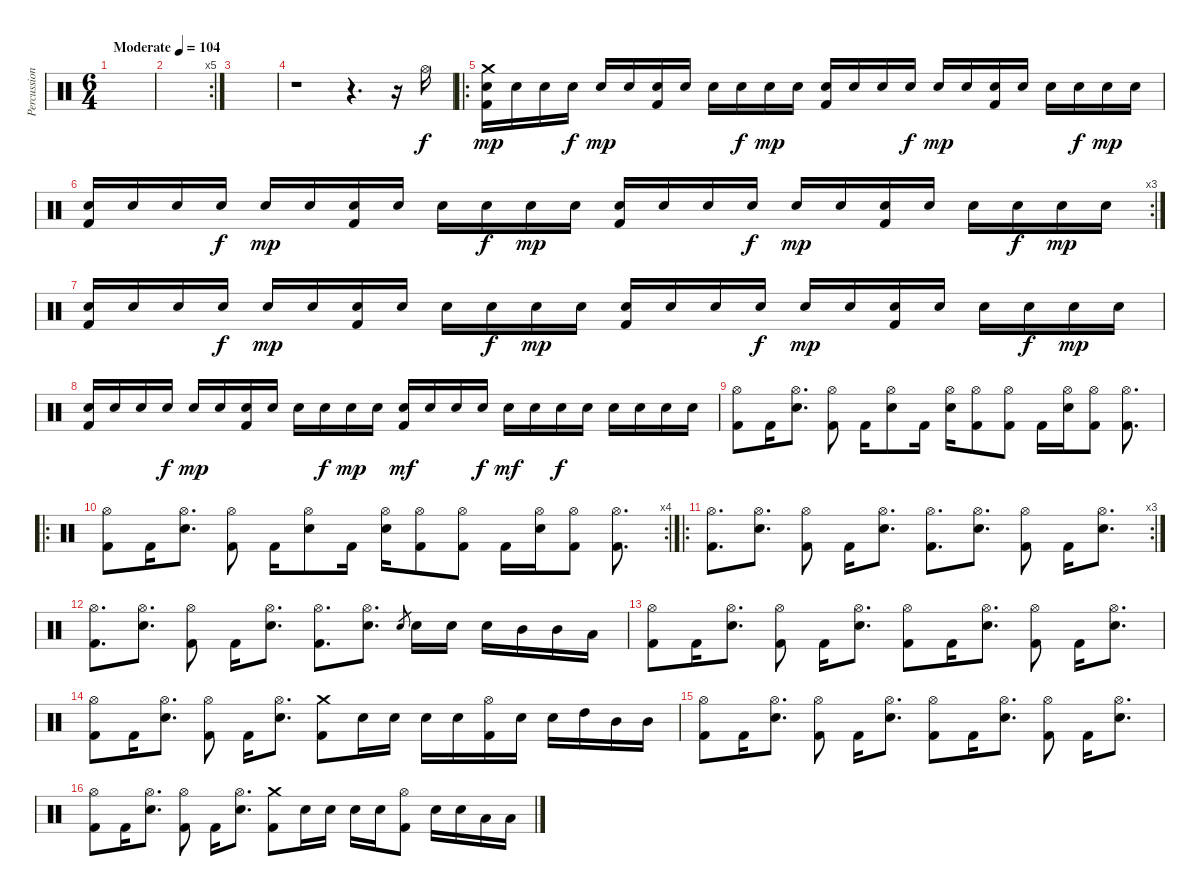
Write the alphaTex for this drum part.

\track ("Percussions" "Percussion") {instrument percussion}
\staff {score}
\articulation defaults
\ts (6 4)
\tempo (104 "Moderate")
\clef neutral
\ks c
|
\rc 5
|
|
r.1 r.4{d} r.16 "Hi-Hat (open)".16 |
\ro
("Crash medium (hit)" "Snare (hit) 2" "Kick (hit) 2").16{dy mp} "Snare (hit) 2".16 "Snare (hit) 2".16 "Snare (hit) 2".16{dy f} "Snare (hit) 2".16{dy mp} "Snare (hit) 2".16 ("Snare (hit) 2" "Kick (hit) 2").16 "Snare (hit) 2".16 "Snare (hit) 2".16 "Snare (hit) 2".16{dy f} "Snare (hit) 2".16{dy mp} "Snare (hit) 2".16 ("Snare (hit) 2" "Kick (hit) 2").16 "Snare (hit) 2".16 "Snare (hit) 2".16 "Snare (hit) 2".16{dy f} "Snare (hit) 2".16{dy mp} "Snare (hit) 2".16 ("Snare (hit) 2" "Kick (hit) 2").16 "Snare (hit) 2".16 "Snare (hit) 2".16 "Snare (hit) 2".16{dy f} "Snare (hit) 2".16{dy mp} "Snare (hit) 2".16 |
\rc 3
("Snare (hit) 2" "Kick (hit) 2").16 "Snare (hit) 2".16 "Snare (hit) 2".16 "Snare (hit) 2".16{dy f} "Snare (hit) 2".16{dy mp} "Snare (hit) 2".16 ("Snare (hit) 2" "Kick (hit) 2").16 "Snare (hit) 2".16 "Snare (hit) 2".16 "Snare (hit) 2".16{dy f} "Snare (hit) 2".16{dy mp} "Snare (hit) 2".16 ("Snare (hit) 2" "Kick (hit) 2").16 "Snare (hit) 2".16 "Snare (hit) 2".16 "Snare (hit) 2".16{dy f} "Snare (hit) 2".16{dy mp} "Snare (hit) 2".16 ("Snare (hit) 2" "Kick (hit) 2").16 "Snare (hit) 2".16 "Snare (hit) 2".16 "Snare (hit) 2".16{dy f} "Snare (hit) 2".16{dy mp} "Snare (hit) 2".16 |
("Snare (hit) 2" "Kick (hit) 2").16 "Snare (hit) 2".16 "Snare (hit) 2".16 "Snare (hit) 2".16{dy f} "Snare (hit) 2".16{dy mp} "Snare (hit) 2".16 ("Snare (hit) 2" "Kick (hit) 2").16 "Snare (hit) 2".16 "Snare (hit) 2".16 "Snare (hit) 2".16{dy f} "Snare (hit) 2".16{dy mp} "Snare (hit) 2".16 ("Snare (hit) 2" "Kick (hit) 2").16 "Snare (hit) 2".16 "Snare (hit) 2".16 "Snare (hit) 2".16{dy f} "Snare (hit) 2".16{dy mp} "Snare (hit) 2".16 ("Snare (hit) 2" "Kick (hit) 2").16 "Snare (hit) 2".16 "Snare (hit) 2".16 "Snare (hit) 2".16{dy f} "Snare (hit) 2".16{dy mp} "Snare (hit) 2".16 |
("Snare (hit) 2" "Kick (hit) 2").16 "Snare (hit) 2".16 "Snare (hit) 2".16 "Snare (hit) 2".16{dy f} "Snare (hit) 2".16{dy mp} "Snare (hit) 2".16 ("Snare (hit) 2" "Kick (hit) 2").16 "Snare (hit) 2".16 "Snare (hit) 2".16 "Snare (hit) 2".16{dy f} "Snare (hit) 2".16{dy mp} "Snare (hit) 2".16 ("Snare (hit) 2" "Kick (hit) 2").16{dy mf} "Snare (hit) 2".16 "Snare (hit) 2".16 "Snare (hit) 2".16{dy f} "Snare (hit) 2".16{dy mf} "Snare (hit) 2".16 "Snare (hit) 2".16{dy f} "Snare (hit) 2".16 "Snare (hit) 2".16 "Snare (hit) 2".16 "Snare (hit) 2".16 "Snare (hit) 2".16 |
("Hi-Hat (open)" "Kick (hit) 2").8 "Kick (hit) 2".16 ("Hi-Hat (open)" "Snare (hit) 2").8{d} ("Hi-Hat (open)" "Kick (hit) 2").8 "Kick (hit) 2".16 ("Hi-Hat (open)" "Snare (hit) 2").8 "Kick (hit) 2".16 ("Hi-Hat (open)" "Snare (hit) 2").16 ("Hi-Hat (open)" "Kick (hit) 2").8 ("Hi-Hat (open)" "Kick (hit) 2").8 "Kick (hit) 2".16 ("Hi-Hat (open)" "Snare (hit) 2").16 ("Hi-Hat (open)" "Kick (hit) 2").8 ("Hi-Hat (open)" "Kick (hit) 2").8{d} |
\ro
\rc 4
("Hi-Hat (open)" "Kick (hit) 2").8 "Kick (hit) 2".16 ("Hi-Hat (open)" "Snare (hit) 2").8{d} ("Hi-Hat (open)" "Kick (hit) 2").8 "Kick (hit) 2".16 ("Hi-Hat (open)" "Snare (hit) 2").8 "Kick (hit) 2".16 ("Hi-Hat (open)" "Snare (hit) 2").16 ("Hi-Hat (open)" "Kick (hit) 2").8 ("Hi-Hat (open)" "Kick (hit) 2").8 "Kick (hit) 2".16 ("Hi-Hat (open)" "Snare (hit) 2").16 ("Hi-Hat (open)" "Kick (hit) 2").8 ("Hi-Hat (open)" "Kick (hit) 2").8{d} |
\ro
\rc 3
("Hi-Hat (open)" "Kick (hit) 2").8{d} ("Hi-Hat (open)" "Snare (hit) 2").8{d} ("Hi-Hat (open)" "Kick (hit) 2").8 "Kick (hit) 2".16 ("Hi-Hat (open)" "Snare (hit) 2").8{d} ("Hi-Hat (open)" "Kick (hit) 2").8{d} ("Hi-Hat (open)" "Snare (hit) 2").8{d} ("Hi-Hat (open)" "Kick (hit) 2").8 "Kick (hit) 2".16 ("Hi-Hat (open)" "Snare (hit) 2").8{d} |
("Hi-Hat (open)" "Kick (hit) 2").8{d} ("Hi-Hat (open)" "Snare (hit) 2").8{d} ("Hi-Hat (open)" "Kick (hit) 2").8 "Kick (hit) 2".16 ("Hi-Hat (open)" "Snare (hit) 2").8{d} ("Hi-Hat (open)" "Kick (hit) 2").8{d} ("Hi-Hat (open)" "Snare (hit) 2").8{d} "Snare (hit) 2".8{gr} "Snare (hit) 2".16 "Snare (hit) 2".16 "Snare (hit) 2".16 "Mid Tom (hit)".16 "Mid Tom (hit)".16 "Low Tom (hit)".16 |
("Hi-Hat (open)" "Kick (hit) 2").8 "Kick (hit) 2".16 ("Hi-Hat (open)" "Snare (hit) 2").8{d} ("Hi-Hat (open)" "Kick (hit) 2").8 "Kick (hit) 2".16 ("Hi-Hat (open)" "Snare (hit) 2").8{d} ("Hi-Hat (open)" "Kick (hit) 2").8 "Kick (hit) 2".16 ("Hi-Hat (open)" "Snare (hit) 2").8{d} ("Hi-Hat (open)" "Kick (hit) 2").8 "Kick (hit) 2".16 ("Hi-Hat (open)" "Snare (hit) 2").8{d} |
("Hi-Hat (open)" "Kick (hit) 2").8 "Kick (hit) 2".16 ("Hi-Hat (open)" "Snare (hit) 2").8{d} ("Hi-Hat (open)" "Kick (hit) 2").8 "Kick (hit) 2".16 ("Hi-Hat (open)" "Snare (hit) 2").8{d} ("Crash medium (hit)" "Kick (hit) 2").8 "Snare (hit) 2".16 "Snare (hit) 2".16 "Snare (hit) 2".16 "Snare (hit) 2".16 ("Hi-Hat (open)" "Kick (hit) 2").16 "Snare (hit) 2".16 "Snare (hit) 2".16 "High Tom (hit)".16 "Mid Tom (hit)".16 "Mid Tom (hit)".16 |
("Hi-Hat (open)" "Kick (hit) 2").8 "Kick (hit) 2".16 ("Hi-Hat (open)" "Snare (hit) 2").8{d} ("Hi-Hat (open)" "Kick (hit) 2").8 "Kick (hit) 2".16 ("Hi-Hat (open)" "Snare (hit) 2").8{d} ("Hi-Hat (open)" "Kick (hit) 2").8 "Kick (hit) 2".16 ("Hi-Hat (open)" "Snare (hit) 2").8{d} ("Hi-Hat (open)" "Kick (hit) 2").8 "Kick (hit) 2".16 ("Hi-Hat (open)" "Snare (hit) 2").8{d} |
("Hi-Hat (open)" "Kick (hit) 2").8 "Kick (hit) 2".16 ("Hi-Hat (open)" "Snare (hit) 2").8{d} ("Hi-Hat (open)" "Kick (hit) 2").8 "Kick (hit) 2".16 ("Hi-Hat (open)" "Snare (hit) 2").8{d} ("Crash medium (hit)" "Kick (hit) 2").8 "Snare (hit) 2".16 "Snare (hit) 2".16 "Snare (hit) 2".16 "Snare (hit) 2".16 ("Hi-Hat (open)" "Kick (hit) 2").8 "Snare (hit) 2".16 "Snare (hit) 2".16 "Low Tom (hit)".16 "Low Tom (hit)".16
